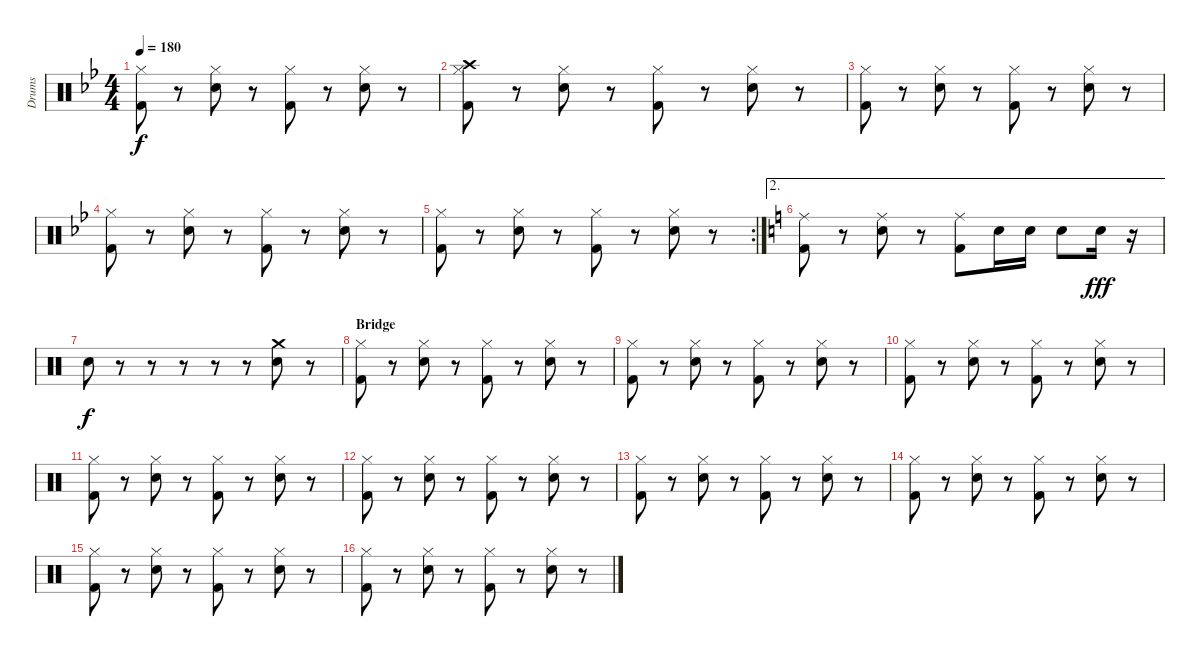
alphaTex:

\track ("Drums" "Drums") {instrument percussion}
\staff {score}
\articulation defaults
\ts (4 4)
\tempo 180
\clef neutral
\ks bb
("Hi-Hat (closed)" "Kick (hit) 2").8{dy f} r.8 ("Hi-Hat (closed)" "Electric Snare (hit)").8 r.8 ("Hi-Hat (closed)" "Kick (hit) 2").8 r.8 ("Hi-Hat (closed)" "Electric Snare (hit)").8 r.8 |
("Hi-Hat (closed)" "Kick (hit) 2" "Crash high (hit)").8 r.8 ("Hi-Hat (closed)" "Electric Snare (hit)").8 r.8 ("Hi-Hat (closed)" "Kick (hit) 2").8 r.8 ("Hi-Hat (closed)" "Electric Snare (hit)").8 r.8 |
("Hi-Hat (closed)" "Kick (hit) 2").8 r.8 ("Hi-Hat (closed)" "Electric Snare (hit)").8 r.8 ("Hi-Hat (closed)" "Kick (hit) 2").8 r.8 ("Hi-Hat (closed)" "Electric Snare (hit)").8 r.8 |
("Hi-Hat (closed)" "Kick (hit) 2").8 r.8 ("Hi-Hat (closed)" "Electric Snare (hit)").8 r.8 ("Hi-Hat (closed)" "Kick (hit) 2").8 r.8 ("Hi-Hat (closed)" "Electric Snare (hit)").8 r.8 |
\rc 2
("Hi-Hat (closed)" "Kick (hit) 2").8 r.8 ("Hi-Hat (closed)" "Electric Snare (hit)").8 r.8 ("Hi-Hat (closed)" "Kick (hit) 2").8 r.8 ("Hi-Hat (closed)" "Electric Snare (hit)").8 r.8 |
\ae 2
\ks c
("Ride (middle)" "Kick (hit) 2").8 r.8 ("Ride (middle)" "Electric Snare (hit)").8 r.8 ("Ride (middle)" "Kick (hit) 2").8 "Electric Snare (hit)".16 "Electric Snare (hit)".16 "Electric Snare (hit)".8 "Electric Snare (hit)".16{dy fff} r.16 |
"Electric Snare (hit)".8{dy f} r.8 r.8 r.8 r.8 r.8 ("Electric Snare (hit)" "Crash medium (hit)").8 r.8 |
\section ("" "Bridge")
("Hi-Hat (closed)" "Kick (hit) 2").8 r.8 ("Hi-Hat (closed)" "Electric Snare (hit)").8 r.8 ("Hi-Hat (closed)" "Kick (hit) 2").8 r.8 ("Hi-Hat (closed)" "Electric Snare (hit)").8 r.8 |
("Hi-Hat (closed)" "Kick (hit) 2").8 r.8 ("Hi-Hat (closed)" "Electric Snare (hit)").8 r.8 ("Hi-Hat (closed)" "Kick (hit) 2").8 r.8 ("Hi-Hat (closed)" "Electric Snare (hit)").8 r.8 |
("Hi-Hat (closed)" "Kick (hit) 2").8 r.8 ("Hi-Hat (closed)" "Electric Snare (hit)").8 r.8 ("Hi-Hat (closed)" "Kick (hit) 2").8 r.8 ("Hi-Hat (closed)" "Electric Snare (hit)").8 r.8 |
("Hi-Hat (closed)" "Kick (hit) 2").8 r.8 ("Hi-Hat (closed)" "Electric Snare (hit)").8 r.8 ("Hi-Hat (closed)" "Kick (hit) 2").8 r.8 ("Hi-Hat (closed)" "Electric Snare (hit)").8 r.8 |
("Hi-Hat (closed)" "Kick (hit) 2").8 r.8 ("Hi-Hat (closed)" "Electric Snare (hit)").8 r.8 ("Hi-Hat (closed)" "Kick (hit) 2").8 r.8 ("Hi-Hat (closed)" "Electric Snare (hit)").8 r.8 |
("Hi-Hat (closed)" "Kick (hit) 2").8 r.8 ("Hi-Hat (closed)" "Electric Snare (hit)").8 r.8 ("Hi-Hat (closed)" "Kick (hit) 2").8 r.8 ("Hi-Hat (closed)" "Electric Snare (hit)").8 r.8 |
("Hi-Hat (closed)" "Kick (hit) 2").8 r.8 ("Hi-Hat (closed)" "Electric Snare (hit)").8 r.8 ("Hi-Hat (closed)" "Kick (hit) 2").8 r.8 ("Hi-Hat (closed)" "Electric Snare (hit)").8 r.8 |
("Hi-Hat (closed)" "Kick (hit) 2").8 r.8 ("Hi-Hat (closed)" "Electric Snare (hit)").8 r.8 ("Hi-Hat (closed)" "Kick (hit) 2").8 r.8 ("Hi-Hat (closed)" "Electric Snare (hit)").8 r.8 |
("Hi-Hat (closed)" "Kick (hit) 2").8 r.8 ("Hi-Hat (closed)" "Electric Snare (hit)").8 r.8 ("Hi-Hat (closed)" "Kick (hit) 2").8 r.8 ("Hi-Hat (closed)" "Electric Snare (hit)").8 r.8
